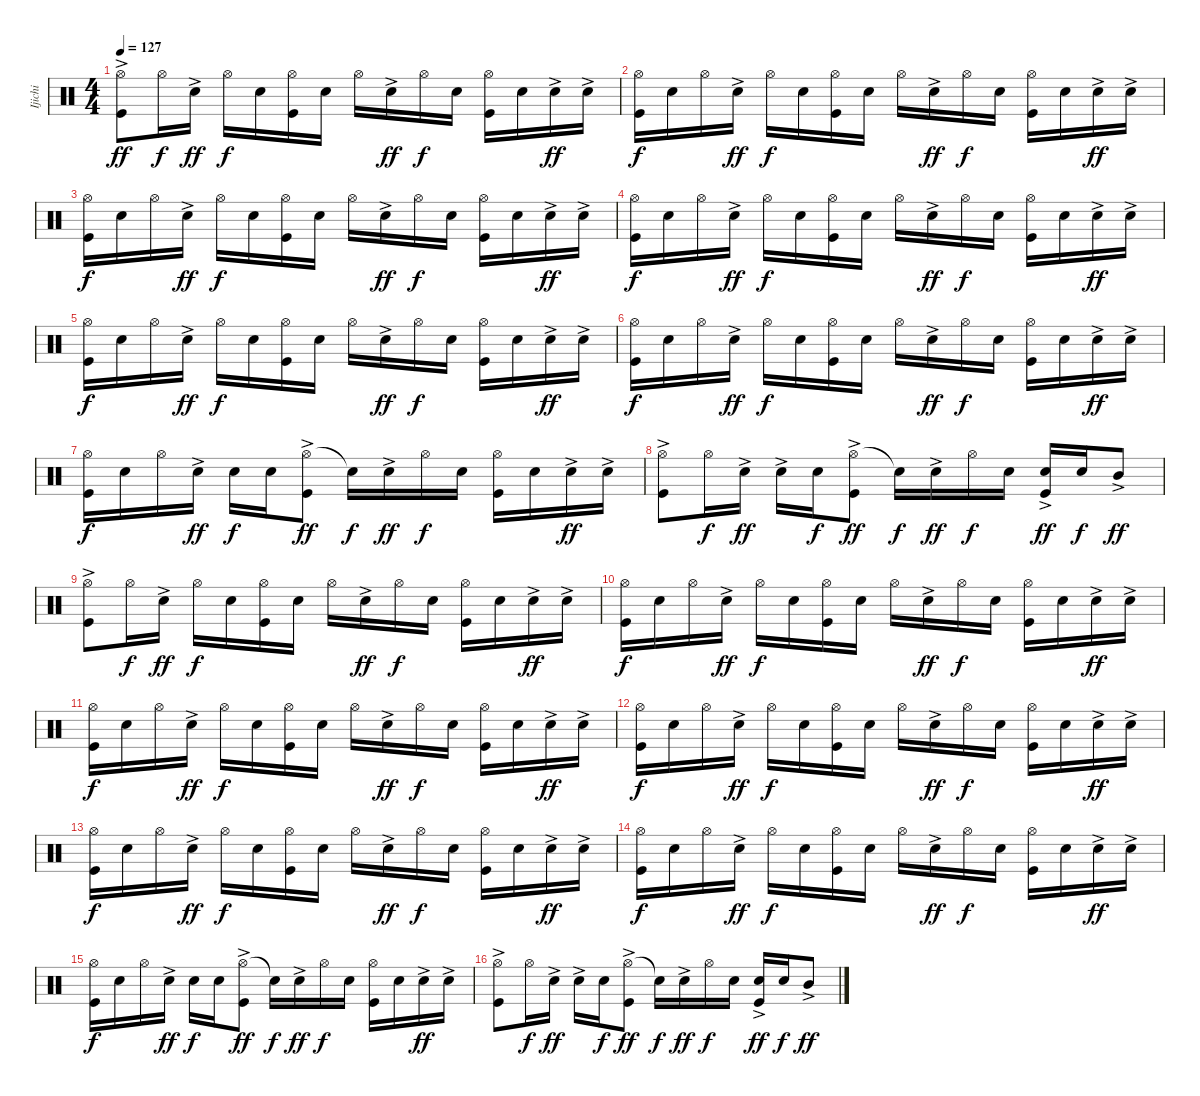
\track ("Ijichi" "Ijichi") {instrument percussion}
\staff {score}
\articulation defaults
\ts (4 4)
\tempo 127
\clef neutral
\ks c
("Hi-Hat (open)"{ac} "Kick (hit)").8{dy ff} "Hi-Hat (open)".16{dy f} "Electric Snare (hit)"{ac}.16{dy ff} "Hi-Hat (open)".16{dy f} "Electric Snare (hit)".16 ("Hi-Hat (open)" "Kick (hit)").16 "Electric Snare (hit)".16 "Hi-Hat (open)".16 "Electric Snare (hit)"{ac}.16{dy ff} "Hi-Hat (open)".16{dy f} "Electric Snare (hit)".16 ("Hi-Hat (open)" "Kick (hit)").16 "Electric Snare (hit)".16 "Electric Snare (hit)"{ac}.16{dy ff} "Electric Snare (hit)"{ac}.16 |
("Hi-Hat (open)" "Kick (hit)").16{dy f} "Electric Snare (hit)".16 "Hi-Hat (open)".16 "Electric Snare (hit)"{ac}.16{dy ff} "Hi-Hat (open)".16{dy f} "Electric Snare (hit)".16 ("Hi-Hat (open)" "Kick (hit)").16 "Electric Snare (hit)".16 "Hi-Hat (open)".16 "Electric Snare (hit)"{ac}.16{dy ff} "Hi-Hat (open)".16{dy f} "Electric Snare (hit)".16 ("Hi-Hat (open)" "Kick (hit)").16 "Electric Snare (hit)".16 "Electric Snare (hit)"{ac}.16{dy ff} "Electric Snare (hit)"{ac}.16 |
("Hi-Hat (open)" "Kick (hit)").16{dy f} "Electric Snare (hit)".16 "Hi-Hat (open)".16 "Electric Snare (hit)"{ac}.16{dy ff} "Hi-Hat (open)".16{dy f} "Electric Snare (hit)".16 ("Hi-Hat (open)" "Kick (hit)").16 "Electric Snare (hit)".16 "Hi-Hat (open)".16 "Electric Snare (hit)"{ac}.16{dy ff} "Hi-Hat (open)".16{dy f} "Electric Snare (hit)".16 ("Hi-Hat (open)" "Kick (hit)").16 "Electric Snare (hit)".16 "Electric Snare (hit)"{ac}.16{dy ff} "Electric Snare (hit)"{ac}.16 |
("Hi-Hat (open)" "Kick (hit)").16{dy f} "Electric Snare (hit)".16 "Hi-Hat (open)".16 "Electric Snare (hit)"{ac}.16{dy ff} "Hi-Hat (open)".16{dy f} "Electric Snare (hit)".16 ("Hi-Hat (open)" "Kick (hit)").16 "Electric Snare (hit)".16 "Hi-Hat (open)".16 "Electric Snare (hit)"{ac}.16{dy ff} "Hi-Hat (open)".16{dy f} "Electric Snare (hit)".16 ("Hi-Hat (open)" "Kick (hit)").16 "Electric Snare (hit)".16 "Electric Snare (hit)"{ac}.16{dy ff} "Electric Snare (hit)"{ac}.16 |
("Hi-Hat (open)" "Kick (hit)").16{dy f} "Electric Snare (hit)".16 "Hi-Hat (open)".16 "Electric Snare (hit)"{ac}.16{dy ff} "Hi-Hat (open)".16{dy f} "Electric Snare (hit)".16 ("Hi-Hat (open)" "Kick (hit)").16 "Electric Snare (hit)".16 "Hi-Hat (open)".16 "Electric Snare (hit)"{ac}.16{dy ff} "Hi-Hat (open)".16{dy f} "Electric Snare (hit)".16 ("Hi-Hat (open)" "Kick (hit)").16 "Electric Snare (hit)".16 "Electric Snare (hit)"{ac}.16{dy ff} "Electric Snare (hit)"{ac}.16 |
("Hi-Hat (open)" "Kick (hit)").16{dy f} "Electric Snare (hit)".16 "Hi-Hat (open)".16 "Electric Snare (hit)"{ac}.16{dy ff} "Hi-Hat (open)".16{dy f} "Electric Snare (hit)".16 ("Hi-Hat (open)" "Kick (hit)").16 "Electric Snare (hit)".16 "Hi-Hat (open)".16 "Electric Snare (hit)"{ac}.16{dy ff} "Hi-Hat (open)".16{dy f} "Electric Snare (hit)".16 ("Hi-Hat (open)" "Kick (hit)").16 "Electric Snare (hit)".16 "Electric Snare (hit)"{ac}.16{dy ff} "Electric Snare (hit)"{ac}.16 |
("Hi-Hat (open)" "Kick (hit)").16{dy f} "Electric Snare (hit)".16 "Hi-Hat (open)".16 "Electric Snare (hit)"{ac}.16{dy ff} "Electric Snare (hit)".16{dy f} "Electric Snare (hit)".16 ("Hi-Hat (open)"{ac} "Kick (hit)").8{dy ff} "Snare (hit)"{t}.16{dy f} "Electric Snare (hit)"{ac}.16{dy ff} "Hi-Hat (open)".16{dy f} "Electric Snare (hit)".16 ("Hi-Hat (open)" "Kick (hit)").16 "Electric Snare (hit)".16 "Electric Snare (hit)"{ac}.16{dy ff} "Electric Snare (hit)"{ac}.16 |
("Hi-Hat (open)"{ac} "Kick (hit)").8 "Hi-Hat (open)".16{dy f} "Electric Snare (hit)"{ac}.16{dy ff} "Electric Snare (hit)"{ac}.16 "Electric Snare (hit)".16{dy f} ("Hi-Hat (open)"{ac} "Kick (hit)").8{dy ff} "Snare (hit)"{t}.16{dy f} "Electric Snare (hit)"{ac}.16{dy ff} "Hi-Hat (open)".16{dy f} "Electric Snare (hit)".16 ("Electric Snare (hit)"{ac} "Kick (hit)").16{dy ff} "Electric Snare (hit)".16{dy f} "Mid Tom (hit)"{ac}.8{dy ff} |
("Hi-Hat (open)"{ac} "Kick (hit)").8 "Hi-Hat (open)".16{dy f} "Electric Snare (hit)"{ac}.16{dy ff} "Hi-Hat (open)".16{dy f} "Electric Snare (hit)".16 ("Hi-Hat (open)" "Kick (hit)").16 "Electric Snare (hit)".16 "Hi-Hat (open)".16 "Electric Snare (hit)"{ac}.16{dy ff} "Hi-Hat (open)".16{dy f} "Electric Snare (hit)".16 ("Hi-Hat (open)" "Kick (hit)").16 "Electric Snare (hit)".16 "Electric Snare (hit)"{ac}.16{dy ff} "Electric Snare (hit)"{ac}.16 |
("Hi-Hat (open)" "Kick (hit)").16{dy f} "Electric Snare (hit)".16 "Hi-Hat (open)".16 "Electric Snare (hit)"{ac}.16{dy ff} "Hi-Hat (open)".16{dy f} "Electric Snare (hit)".16 ("Hi-Hat (open)" "Kick (hit)").16 "Electric Snare (hit)".16 "Hi-Hat (open)".16 "Electric Snare (hit)"{ac}.16{dy ff} "Hi-Hat (open)".16{dy f} "Electric Snare (hit)".16 ("Hi-Hat (open)" "Kick (hit)").16 "Electric Snare (hit)".16 "Electric Snare (hit)"{ac}.16{dy ff} "Electric Snare (hit)"{ac}.16 |
("Hi-Hat (open)" "Kick (hit)").16{dy f} "Electric Snare (hit)".16 "Hi-Hat (open)".16 "Electric Snare (hit)"{ac}.16{dy ff} "Hi-Hat (open)".16{dy f} "Electric Snare (hit)".16 ("Hi-Hat (open)" "Kick (hit)").16 "Electric Snare (hit)".16 "Hi-Hat (open)".16 "Electric Snare (hit)"{ac}.16{dy ff} "Hi-Hat (open)".16{dy f} "Electric Snare (hit)".16 ("Hi-Hat (open)" "Kick (hit)").16 "Electric Snare (hit)".16 "Electric Snare (hit)"{ac}.16{dy ff} "Electric Snare (hit)"{ac}.16 |
("Hi-Hat (open)" "Kick (hit)").16{dy f} "Electric Snare (hit)".16 "Hi-Hat (open)".16 "Electric Snare (hit)"{ac}.16{dy ff} "Hi-Hat (open)".16{dy f} "Electric Snare (hit)".16 ("Hi-Hat (open)" "Kick (hit)").16 "Electric Snare (hit)".16 "Hi-Hat (open)".16 "Electric Snare (hit)"{ac}.16{dy ff} "Hi-Hat (open)".16{dy f} "Electric Snare (hit)".16 ("Hi-Hat (open)" "Kick (hit)").16 "Electric Snare (hit)".16 "Electric Snare (hit)"{ac}.16{dy ff} "Electric Snare (hit)"{ac}.16 |
("Hi-Hat (open)" "Kick (hit)").16{dy f} "Electric Snare (hit)".16 "Hi-Hat (open)".16 "Electric Snare (hit)"{ac}.16{dy ff} "Hi-Hat (open)".16{dy f} "Electric Snare (hit)".16 ("Hi-Hat (open)" "Kick (hit)").16 "Electric Snare (hit)".16 "Hi-Hat (open)".16 "Electric Snare (hit)"{ac}.16{dy ff} "Hi-Hat (open)".16{dy f} "Electric Snare (hit)".16 ("Hi-Hat (open)" "Kick (hit)").16 "Electric Snare (hit)".16 "Electric Snare (hit)"{ac}.16{dy ff} "Electric Snare (hit)"{ac}.16 |
("Hi-Hat (open)" "Kick (hit)").16{dy f} "Electric Snare (hit)".16 "Hi-Hat (open)".16 "Electric Snare (hit)"{ac}.16{dy ff} "Hi-Hat (open)".16{dy f} "Electric Snare (hit)".16 ("Hi-Hat (open)" "Kick (hit)").16 "Electric Snare (hit)".16 "Hi-Hat (open)".16 "Electric Snare (hit)"{ac}.16{dy ff} "Hi-Hat (open)".16{dy f} "Electric Snare (hit)".16 ("Hi-Hat (open)" "Kick (hit)").16 "Electric Snare (hit)".16 "Electric Snare (hit)"{ac}.16{dy ff} "Electric Snare (hit)"{ac}.16 |
("Hi-Hat (open)" "Kick (hit)").16{dy f} "Electric Snare (hit)".16 "Hi-Hat (open)".16 "Electric Snare (hit)"{ac}.16{dy ff} "Electric Snare (hit)".16{dy f} "Electric Snare (hit)".16 ("Hi-Hat (open)"{ac} "Kick (hit)").8{dy ff} "Snare (hit)"{t}.16{dy f} "Electric Snare (hit)"{ac}.16{dy ff} "Hi-Hat (open)".16{dy f} "Electric Snare (hit)".16 ("Hi-Hat (open)" "Kick (hit)").16 "Electric Snare (hit)".16 "Electric Snare (hit)"{ac}.16{dy ff} "Electric Snare (hit)"{ac}.16 |
("Hi-Hat (open)"{ac} "Kick (hit)").8 "Hi-Hat (open)".16{dy f} "Electric Snare (hit)"{ac}.16{dy ff} "Electric Snare (hit)"{ac}.16 "Electric Snare (hit)".16{dy f} ("Hi-Hat (open)"{ac} "Kick (hit)").8{dy ff} "Snare (hit)"{t}.16{dy f} "Electric Snare (hit)"{ac}.16{dy ff} "Hi-Hat (open)".16{dy f} "Electric Snare (hit)".16 ("Electric Snare (hit)"{ac} "Kick (hit)").16{dy ff} "Electric Snare (hit)".16{dy f} "Mid Tom (hit)"{ac}.8{dy ff}
